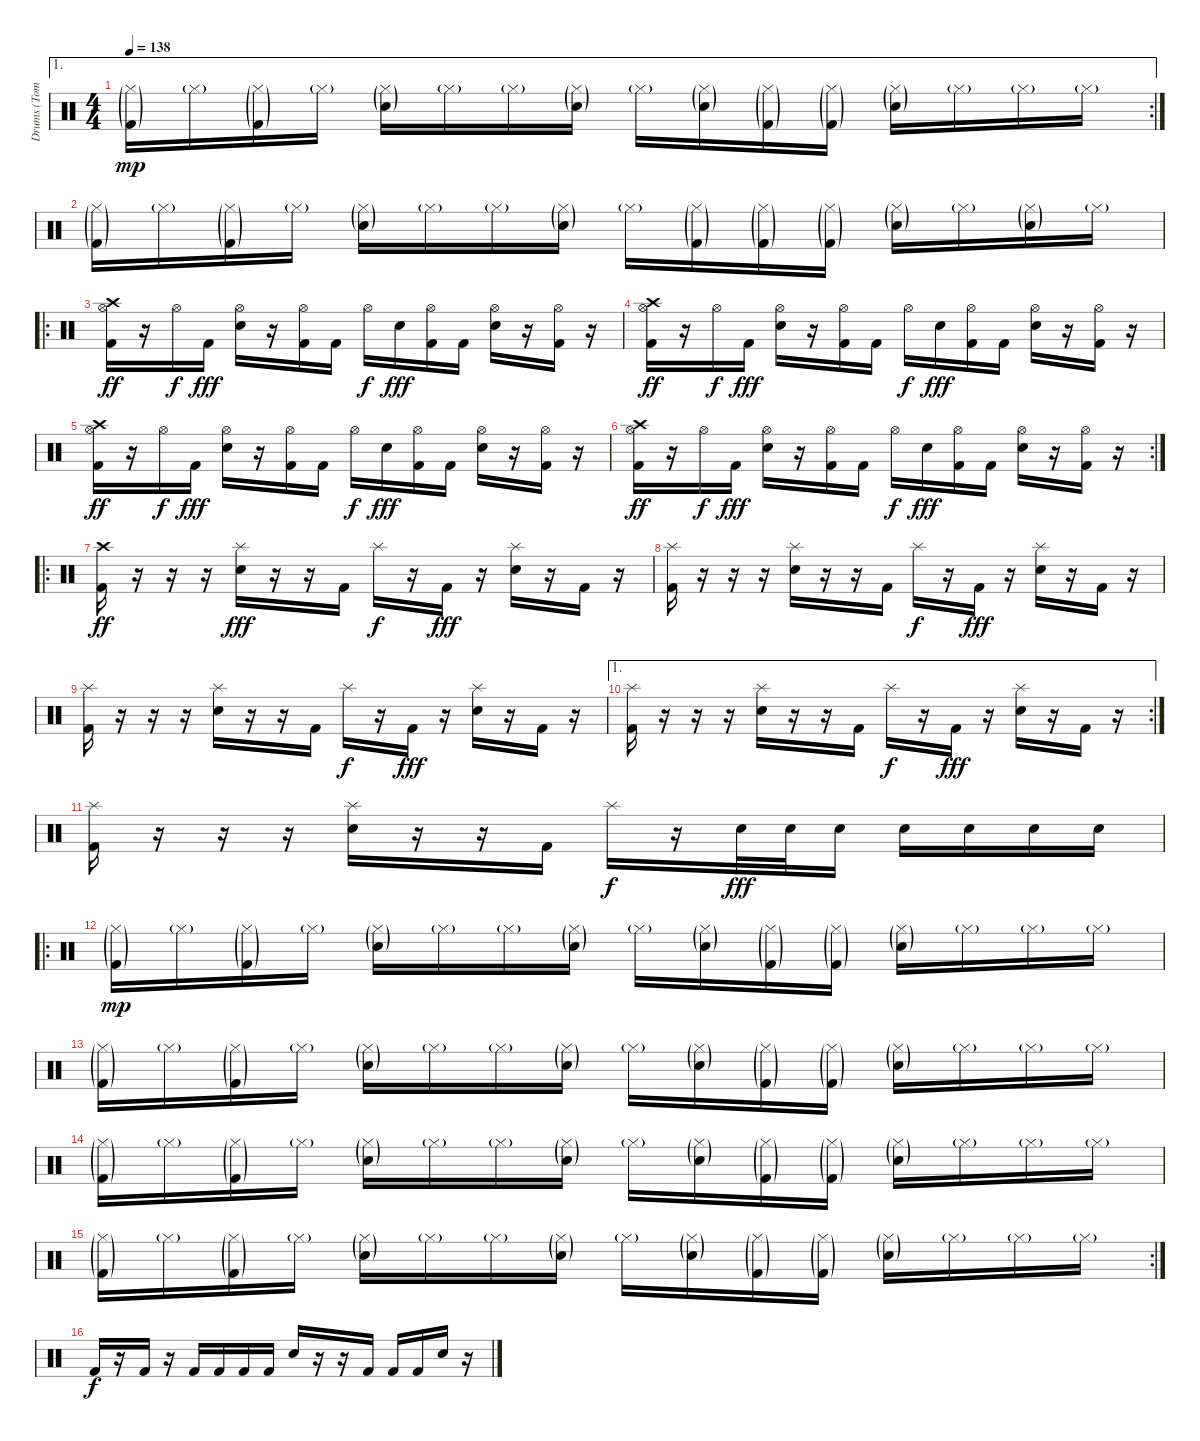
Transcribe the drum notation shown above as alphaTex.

\track ("Drums (Tommy Decker)" "Drums (Tom") {instrument percussion}
\staff {score}
\articulation defaults
\ae 1
\rc 2
\ts (4 4)
\tempo 138
\clef neutral
\ks c
("Kick (hit) 2"{g} "Hi-Hat (closed)"{g}).16{dy mp} "Hi-Hat (closed)"{g}.16 ("Kick (hit) 2"{g} "Hi-Hat (closed)"{g}).16 "Hi-Hat (closed)"{g}.16 ("Electric Snare (hit)"{g} "Hi-Hat (closed)"{g}).16 "Hi-Hat (closed)"{g}.16 "Hi-Hat (closed)"{g}.16 ("Electric Snare (hit)"{g} "Hi-Hat (closed)"{g}).16 "Hi-Hat (closed)"{g}.16 ("Electric Snare (hit)"{g} "Hi-Hat (closed)"{g}).16 ("Kick (hit) 2"{g} "Hi-Hat (closed)"{g}).16 ("Kick (hit) 2"{g} "Hi-Hat (closed)"{g}).16 ("Electric Snare (hit)"{g} "Hi-Hat (closed)"{g}).16 "Hi-Hat (closed)"{g}.16 "Hi-Hat (closed)"{g}.16 "Hi-Hat (closed)"{g}.16 |
("Kick (hit) 2"{g} "Hi-Hat (closed)"{g}).16 "Hi-Hat (closed)"{g}.16 ("Kick (hit) 2"{g} "Hi-Hat (closed)"{g}).16 "Hi-Hat (closed)"{g}.16 ("Electric Snare (hit)"{g} "Hi-Hat (closed)"{g}).16 "Hi-Hat (closed)"{g}.16 "Hi-Hat (closed)"{g}.16 ("Electric Snare (hit)"{g} "Hi-Hat (closed)"{g}).16 "Hi-Hat (closed)"{g}.16 ("Kick (hit) 2"{g} "Hi-Hat (closed)"{g}).16 ("Kick (hit) 2"{g} "Hi-Hat (closed)"{g}).16 ("Kick (hit) 2"{g} "Hi-Hat (closed)"{g}).16 ("Electric Snare (hit)"{g} "Hi-Hat (closed)"{g}).16 "Hi-Hat (closed)"{g}.16 ("Electric Snare (hit)"{g} "Hi-Hat (closed)"{g}).16 "Hi-Hat (closed)"{g}.16 |
\ro
("Kick (hit) 2" "Hi-Hat (open)" "Crash high (hit)").16{dy ff} r.16 "Hi-Hat (open)".16{dy f} "Kick (hit) 2".16{dy fff} ("Snare (hit) 2" "Hi-Hat (open)").16 r.16 ("Kick (hit) 2" "Hi-Hat (open)").16 "Kick (hit) 2".16 "Hi-Hat (open)".16{dy f} "Snare (hit) 2".16{dy fff} ("Kick (hit) 2" "Hi-Hat (open)").16 "Kick (hit) 2".16 ("Snare (hit) 2" "Hi-Hat (open)").16 r.16 ("Kick (hit) 2" "Hi-Hat (open)").16 r.16 |
("Kick (hit) 2" "Hi-Hat (open)" "Crash high (hit)").16{dy ff} r.16 "Hi-Hat (open)".16{dy f} "Kick (hit) 2".16{dy fff} ("Snare (hit) 2" "Hi-Hat (open)").16 r.16 ("Kick (hit) 2" "Hi-Hat (open)").16 "Kick (hit) 2".16 "Hi-Hat (open)".16{dy f} "Snare (hit) 2".16{dy fff} ("Kick (hit) 2" "Hi-Hat (open)").16 "Kick (hit) 2".16 ("Snare (hit) 2" "Hi-Hat (open)").16 r.16 ("Kick (hit) 2" "Hi-Hat (open)").16 r.16 |
("Kick (hit) 2" "Hi-Hat (open)" "Crash high (hit)").16{dy ff} r.16 "Hi-Hat (open)".16{dy f} "Kick (hit) 2".16{dy fff} ("Snare (hit) 2" "Hi-Hat (open)").16 r.16 ("Kick (hit) 2" "Hi-Hat (open)").16 "Kick (hit) 2".16 "Hi-Hat (open)".16{dy f} "Snare (hit) 2".16{dy fff} ("Kick (hit) 2" "Hi-Hat (open)").16 "Kick (hit) 2".16 ("Snare (hit) 2" "Hi-Hat (open)").16 r.16 ("Kick (hit) 2" "Hi-Hat (open)").16 r.16 |
\rc 2
("Kick (hit) 2" "Hi-Hat (open)" "Crash high (hit)").16{dy ff} r.16 "Hi-Hat (open)".16{dy f} "Kick (hit) 2".16{dy fff} ("Snare (hit) 2" "Hi-Hat (open)").16 r.16 ("Kick (hit) 2" "Hi-Hat (open)").16 "Kick (hit) 2".16 "Hi-Hat (open)".16{dy f} "Snare (hit) 2".16{dy fff} ("Kick (hit) 2" "Hi-Hat (open)").16 "Kick (hit) 2".16 ("Snare (hit) 2" "Hi-Hat (open)").16 r.16 ("Kick (hit) 2" "Hi-Hat (open)").16 r.16 |
\ro
("Kick (hit) 2" "Crash high (hit)").16{dy ff} r.16 r.16 r.16 ("Snare (hit) 2" "Splash (hit)").16{dy fff} r.16 r.16 "Kick (hit) 2".16 "Splash (hit)".16{dy f} r.16 "Kick (hit) 2".16{dy fff} r.16 ("Snare (hit) 2" "Splash (hit)").16 r.16 "Kick (hit) 2".16 r.16 |
("Kick (hit) 2" "Splash (hit)").16 r.16 r.16 r.16 ("Snare (hit) 2" "Splash (hit)").16 r.16 r.16 "Kick (hit) 2".16 "Splash (hit)".16{dy f} r.16 "Kick (hit) 2".16{dy fff} r.16 ("Snare (hit) 2" "Splash (hit)").16 r.16 "Kick (hit) 2".16 r.16 |
("Kick (hit) 2" "Splash (hit)").16 r.16 r.16 r.16 ("Snare (hit) 2" "Splash (hit)").16 r.16 r.16 "Kick (hit) 2".16 "Splash (hit)".16{dy f} r.16 "Kick (hit) 2".16{dy fff} r.16 ("Snare (hit) 2" "Splash (hit)").16 r.16 "Kick (hit) 2".16 r.16 |
\ae 1
\rc 2
("Kick (hit) 2" "Splash (hit)").16 r.16 r.16 r.16 ("Snare (hit) 2" "Splash (hit)").16 r.16 r.16 "Kick (hit) 2".16 "Splash (hit)".16{dy f} r.16 "Kick (hit) 2".16{dy fff} r.16 ("Snare (hit) 2" "Splash (hit)").16 r.16 "Kick (hit) 2".16 r.16 |
("Kick (hit) 2" "Splash (hit)").16 r.16 r.16 r.16 ("Snare (hit) 2" "Splash (hit)").16 r.16 r.16 "Kick (hit) 2".16 "Splash (hit)".16{dy f} r.16 "Snare (hit) 2".32{dy fff} "Snare (hit) 2".32 "Snare (hit) 2".16 "Snare (hit) 2".16 "Snare (hit) 2".16 "Snare (hit) 2".16 "Snare (hit) 2".16 |
\ro
("Kick (hit) 2"{g} "Hi-Hat (closed)"{g}).16{dy mp} "Hi-Hat (closed)"{g}.16 ("Kick (hit) 2"{g} "Hi-Hat (closed)"{g}).16 "Hi-Hat (closed)"{g}.16 ("Electric Snare (hit)"{g} "Hi-Hat (closed)"{g}).16 "Hi-Hat (closed)"{g}.16 "Hi-Hat (closed)"{g}.16 ("Electric Snare (hit)"{g} "Hi-Hat (closed)"{g}).16 "Hi-Hat (closed)"{g}.16 ("Electric Snare (hit)"{g} "Hi-Hat (closed)"{g}).16 ("Kick (hit) 2"{g} "Hi-Hat (closed)"{g}).16 ("Kick (hit) 2"{g} "Hi-Hat (closed)"{g}).16 ("Electric Snare (hit)"{g} "Hi-Hat (closed)"{g}).16 "Hi-Hat (closed)"{g}.16 "Hi-Hat (closed)"{g}.16 "Hi-Hat (closed)"{g}.16 |
("Kick (hit) 2"{g} "Hi-Hat (closed)"{g}).16 "Hi-Hat (closed)"{g}.16 ("Kick (hit) 2"{g} "Hi-Hat (closed)"{g}).16 "Hi-Hat (closed)"{g}.16 ("Electric Snare (hit)"{g} "Hi-Hat (closed)"{g}).16 "Hi-Hat (closed)"{g}.16 "Hi-Hat (closed)"{g}.16 ("Electric Snare (hit)"{g} "Hi-Hat (closed)"{g}).16 "Hi-Hat (closed)"{g}.16 ("Electric Snare (hit)"{g} "Hi-Hat (closed)"{g}).16 ("Kick (hit) 2"{g} "Hi-Hat (closed)"{g}).16 ("Kick (hit) 2"{g} "Hi-Hat (closed)"{g}).16 ("Electric Snare (hit)"{g} "Hi-Hat (closed)"{g}).16 "Hi-Hat (closed)"{g}.16 "Hi-Hat (closed)"{g}.16 "Hi-Hat (closed)"{g}.16 |
("Kick (hit) 2"{g} "Hi-Hat (closed)"{g}).16 "Hi-Hat (closed)"{g}.16 ("Kick (hit) 2"{g} "Hi-Hat (closed)"{g}).16 "Hi-Hat (closed)"{g}.16 ("Electric Snare (hit)"{g} "Hi-Hat (closed)"{g}).16 "Hi-Hat (closed)"{g}.16 "Hi-Hat (closed)"{g}.16 ("Electric Snare (hit)"{g} "Hi-Hat (closed)"{g}).16 "Hi-Hat (closed)"{g}.16 ("Electric Snare (hit)"{g} "Hi-Hat (closed)"{g}).16 ("Kick (hit) 2"{g} "Hi-Hat (closed)"{g}).16 ("Kick (hit) 2"{g} "Hi-Hat (closed)"{g}).16 ("Electric Snare (hit)"{g} "Hi-Hat (closed)"{g}).16 "Hi-Hat (closed)"{g}.16 "Hi-Hat (closed)"{g}.16 "Hi-Hat (closed)"{g}.16 |
\rc 2
("Kick (hit) 2"{g} "Hi-Hat (closed)"{g}).16 "Hi-Hat (closed)"{g}.16 ("Kick (hit) 2"{g} "Hi-Hat (closed)"{g}).16 "Hi-Hat (closed)"{g}.16 ("Electric Snare (hit)"{g} "Hi-Hat (closed)"{g}).16 "Hi-Hat (closed)"{g}.16 "Hi-Hat (closed)"{g}.16 ("Electric Snare (hit)"{g} "Hi-Hat (closed)"{g}).16 "Hi-Hat (closed)"{g}.16 ("Electric Snare (hit)"{g} "Hi-Hat (closed)"{g}).16 ("Kick (hit) 2"{g} "Hi-Hat (closed)"{g}).16 ("Kick (hit) 2"{g} "Hi-Hat (closed)"{g}).16 ("Electric Snare (hit)"{g} "Hi-Hat (closed)"{g}).16 "Hi-Hat (closed)"{g}.16 "Hi-Hat (closed)"{g}.16 "Hi-Hat (closed)"{g}.16 |
"Kick (hit) 2".16{dy f} r.16 "Kick (hit) 2".16 r.16 "Kick (hit) 2".16 "Kick (hit) 2".16 "Kick (hit) 2".16 "Kick (hit) 2".16 "Electric Snare (hit)".16 r.16 r.16 "Kick (hit) 2".16 "Kick (hit) 2".16 "Kick (hit) 2".16 "Electric Snare (hit)".16 r.16
